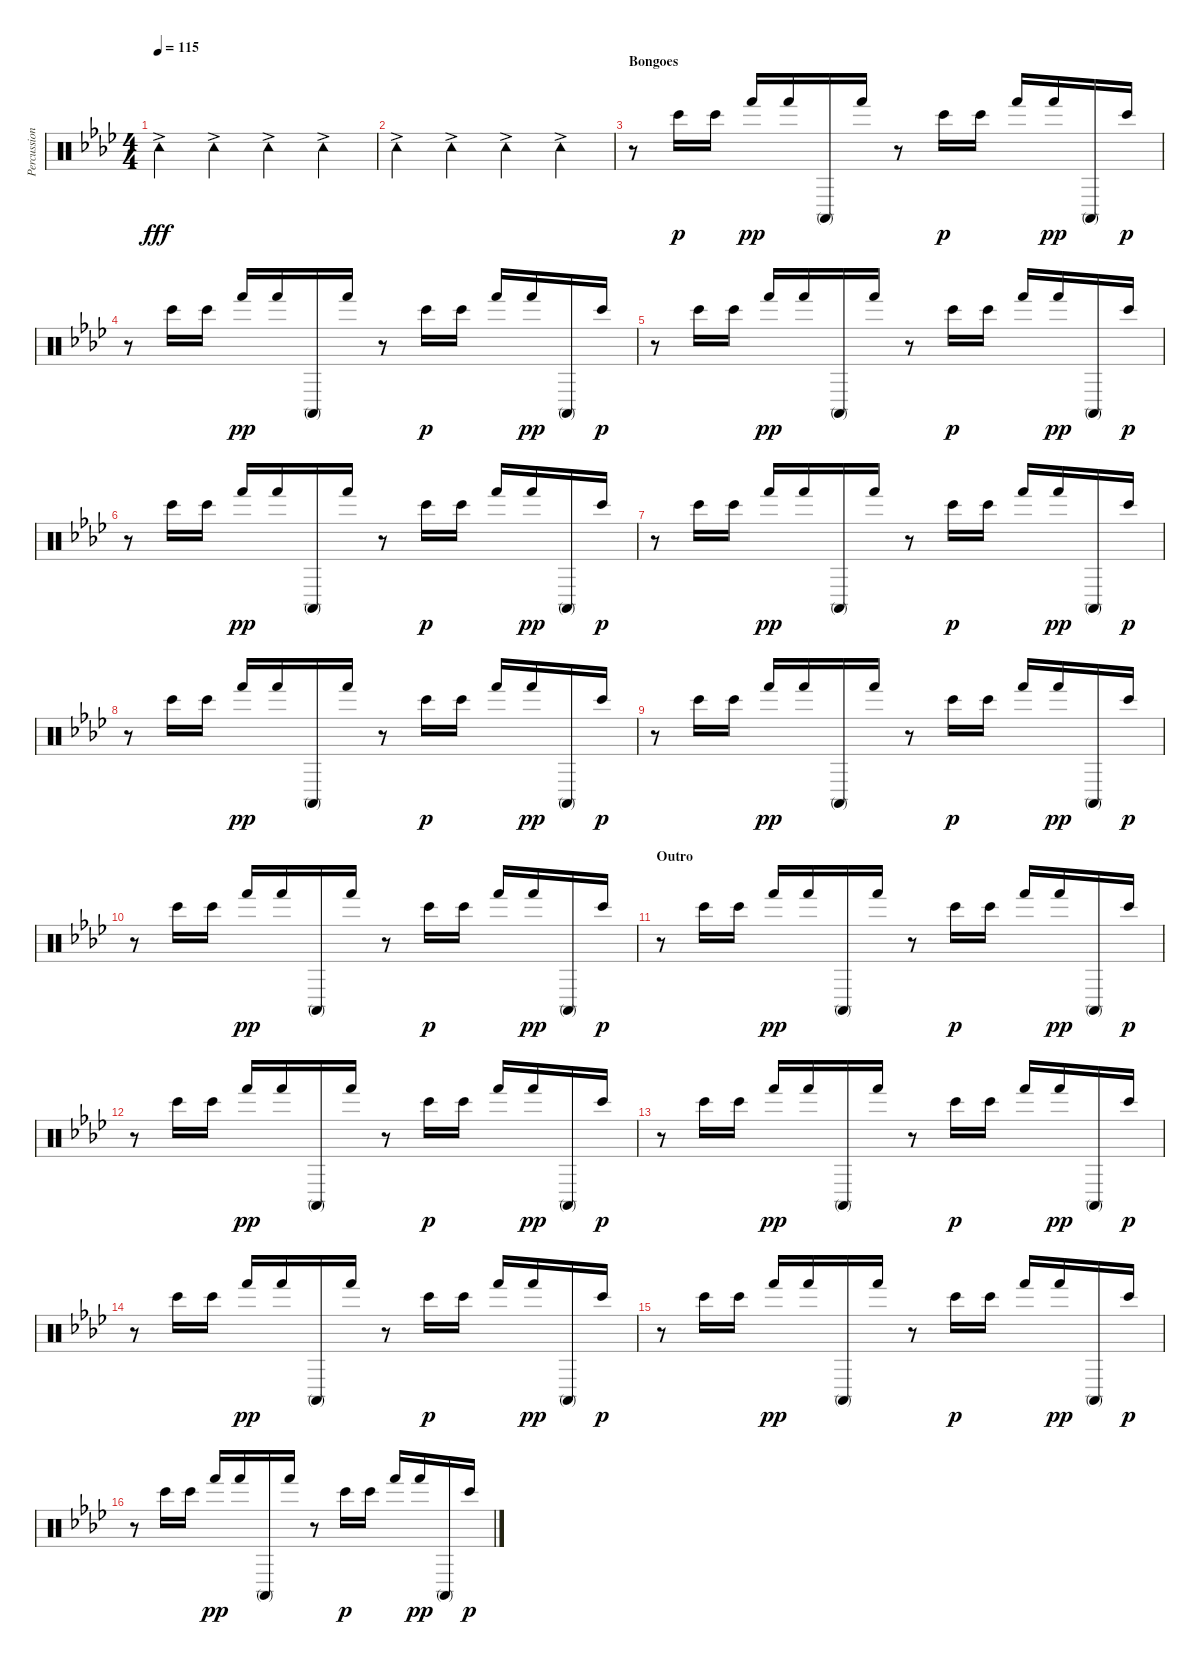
\track ("Percussion" "Percussion") {instrument percussion}
\staff {score}
\articulation defaults
\ts (4 4)
\tempo 115
\clef neutral
\ks ab "Tambourine (hit)"{ac}.4{dy fff} "Tambourine (hit)"{ac}.4 "Tambourine (hit)"{ac}.4 "Tambourine (hit)"{ac}.4
|
"Tambourine (hit)"{ac}.4 "Tambourine (hit)"{ac}.4 "Tambourine (hit)"{ac}.4 "Tambourine (hit)"{ac}.4 |
\section ("" "Bongoes")
r.8 "Bongo High (hit)".16{dy p} "Bongo High (hit)".16 "Hand (hit)".16{dy pp} "Hand (hit)".16 "Conga high (mute)".16 "Hand (hit)".16 r.8 "Bongo High (hit)".16{dy p} "Bongo High (hit)".16 "Hand (hit)".16 "Hand (hit)".16{dy pp} "Conga high (mute)".16 "Bongo High (hit)".16{dy p} |
r.8 "Bongo High (hit)".16 "Bongo High (hit)".16 "Hand (hit)".16{dy pp} "Hand (hit)".16 "Conga high (mute)".16 "Hand (hit)".16 r.8 "Bongo High (hit)".16{dy p} "Bongo High (hit)".16 "Hand (hit)".16 "Hand (hit)".16{dy pp} "Conga high (mute)".16 "Bongo High (hit)".16{dy p} |
r.8 "Bongo High (hit)".16 "Bongo High (hit)".16 "Hand (hit)".16{dy pp} "Hand (hit)".16 "Conga high (mute)".16 "Hand (hit)".16 r.8 "Bongo High (hit)".16{dy p} "Bongo High (hit)".16 "Hand (hit)".16 "Hand (hit)".16{dy pp} "Conga high (mute)".16 "Bongo High (hit)".16{dy p} |
r.8 "Bongo High (hit)".16 "Bongo High (hit)".16 "Hand (hit)".16{dy pp} "Hand (hit)".16 "Conga high (mute)".16 "Hand (hit)".16 r.8 "Bongo High (hit)".16{dy p} "Bongo High (hit)".16 "Hand (hit)".16 "Hand (hit)".16{dy pp} "Conga high (mute)".16 "Bongo High (hit)".16{dy p} |
r.8 "Bongo High (hit)".16 "Bongo High (hit)".16 "Hand (hit)".16{dy pp} "Hand (hit)".16 "Conga high (mute)".16 "Hand (hit)".16 r.8 "Bongo High (hit)".16{dy p} "Bongo High (hit)".16 "Hand (hit)".16 "Hand (hit)".16{dy pp} "Conga high (mute)".16 "Bongo High (hit)".16{dy p} |
r.8 "Bongo High (hit)".16 "Bongo High (hit)".16 "Hand (hit)".16{dy pp} "Hand (hit)".16 "Conga high (mute)".16 "Hand (hit)".16 r.8 "Bongo High (hit)".16{dy p} "Bongo High (hit)".16 "Hand (hit)".16 "Hand (hit)".16{dy pp} "Conga high (mute)".16 "Bongo High (hit)".16{dy p} |
r.8 "Bongo High (hit)".16 "Bongo High (hit)".16 "Hand (hit)".16{dy pp} "Hand (hit)".16 "Conga high (mute)".16 "Hand (hit)".16 r.8 "Bongo High (hit)".16{dy p} "Bongo High (hit)".16 "Hand (hit)".16 "Hand (hit)".16{dy pp} "Conga high (mute)".16 "Bongo High (hit)".16{dy p} |
r.8 "Bongo High (hit)".16 "Bongo High (hit)".16 "Hand (hit)".16{dy pp} "Hand (hit)".16 "Conga high (mute)".16 "Hand (hit)".16 r.8 "Bongo High (hit)".16{dy p} "Bongo High (hit)".16 "Hand (hit)".16 "Hand (hit)".16{dy pp} "Conga high (mute)".16 "Bongo High (hit)".16{dy p} |
\section ("" "Outro")
r.8 "Bongo High (hit)".16 "Bongo High (hit)".16 "Hand (hit)".16{dy pp} "Hand (hit)".16 "Conga high (mute)".16 "Hand (hit)".16 r.8 "Bongo High (hit)".16{dy p} "Bongo High (hit)".16 "Hand (hit)".16 "Hand (hit)".16{dy pp} "Conga high (mute)".16 "Bongo High (hit)".16{dy p} |
r.8 "Bongo High (hit)".16 "Bongo High (hit)".16 "Hand (hit)".16{dy pp} "Hand (hit)".16 "Conga high (mute)".16 "Hand (hit)".16 r.8 "Bongo High (hit)".16{dy p} "Bongo High (hit)".16 "Hand (hit)".16 "Hand (hit)".16{dy pp} "Conga high (mute)".16 "Bongo High (hit)".16{dy p} |
r.8 "Bongo High (hit)".16 "Bongo High (hit)".16 "Hand (hit)".16{dy pp} "Hand (hit)".16 "Conga high (mute)".16 "Hand (hit)".16 r.8 "Bongo High (hit)".16{dy p} "Bongo High (hit)".16 "Hand (hit)".16 "Hand (hit)".16{dy pp} "Conga high (mute)".16 "Bongo High (hit)".16{dy p} |
r.8 "Bongo High (hit)".16 "Bongo High (hit)".16 "Hand (hit)".16{dy pp} "Hand (hit)".16 "Conga high (mute)".16 "Hand (hit)".16 r.8 "Bongo High (hit)".16{dy p} "Bongo High (hit)".16 "Hand (hit)".16 "Hand (hit)".16{dy pp} "Conga high (mute)".16 "Bongo High (hit)".16{dy p} |
r.8 "Bongo High (hit)".16 "Bongo High (hit)".16 "Hand (hit)".16{dy pp} "Hand (hit)".16 "Conga high (mute)".16 "Hand (hit)".16 r.8 "Bongo High (hit)".16{dy p} "Bongo High (hit)".16 "Hand (hit)".16 "Hand (hit)".16{dy pp} "Conga high (mute)".16 "Bongo High (hit)".16{dy p} |
r.8 "Bongo High (hit)".16 "Bongo High (hit)".16 "Hand (hit)".16{dy pp} "Hand (hit)".16 "Conga high (mute)".16 "Hand (hit)".16 r.8 "Bongo High (hit)".16{dy p} "Bongo High (hit)".16 "Hand (hit)".16 "Hand (hit)".16{dy pp} "Conga high (mute)".16 "Bongo High (hit)".16{dy p}
